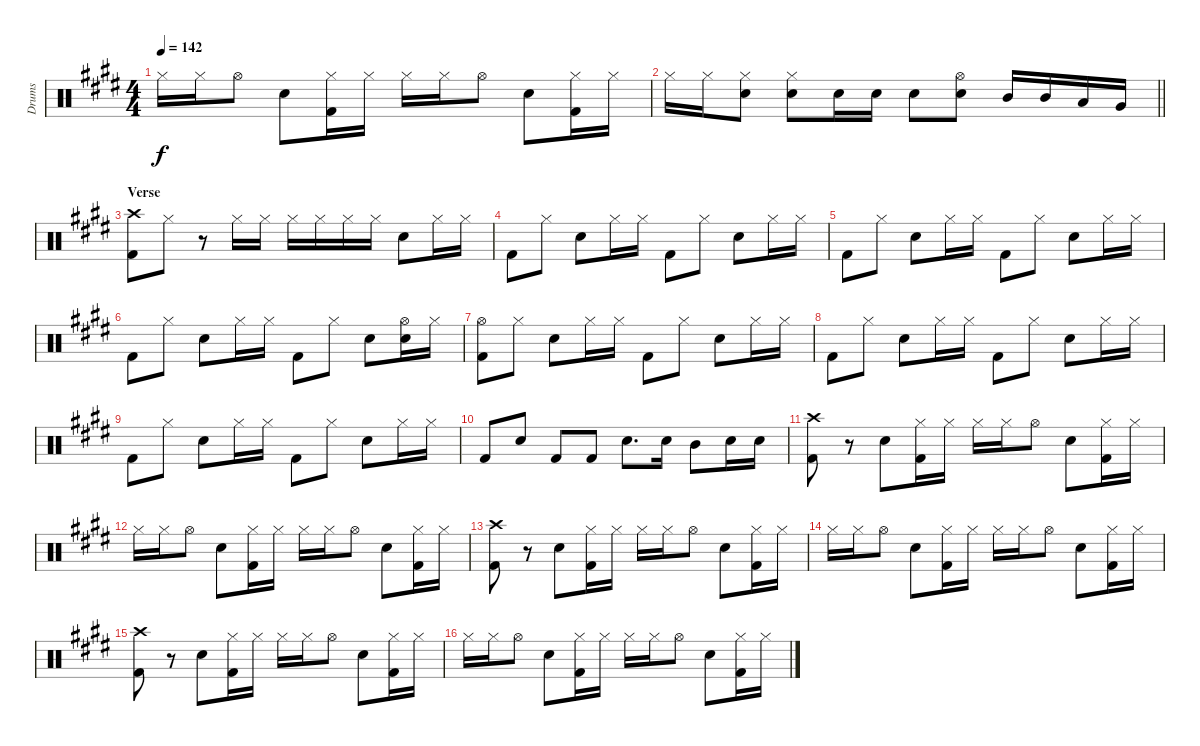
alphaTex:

\track ("Drums" "Drums") {instrument percussion}
\staff {score}
\articulation defaults
\ts (4 4)
\tempo 142
\clef neutral
\ks e "Hi-Hat (closed)".16{dy f} "Hi-Hat (closed)".16 "Hi-Hat (open)".8 "Electric Snare (hit)".8
("Hi-Hat (closed)" "Kick (hit) 2").16 "Hi-Hat (closed)".16 "Hi-Hat (closed)".16 "Hi-Hat (closed)".16 "Hi-Hat (open)".8 "Electric Snare (hit)".8 ("Hi-Hat (closed)" "Kick (hit) 2").16 "Hi-Hat (closed)".16 |
\barLineRight lightlight "Hi-Hat (closed)".16 "Hi-Hat (closed)".16
("Hi-Hat (closed)" "Electric Snare (hit)").8 ("Hi-Hat (closed)" "Electric Snare (hit)").8 "Electric Snare (hit)".16 "Electric Snare (hit)".16 "Electric Snare (hit)".8 ("Hi-Hat (open)" "Electric Snare (hit)").8 "Mid Tom (hit)".16 "Mid Tom (hit)".16 "Low Tom (hit)".16 "Very Low Tom (hit)".16 |
\section ("" "Verse")
("Crash high (hit)" "Kick (hit) 2").8 "Hi-Hat (closed)".8 r.8 "Hi-Hat (closed)".16 "Hi-Hat (closed)".16 "Hi-Hat (closed)".16 "Hi-Hat (closed)".16 "Hi-Hat (closed)".16 "Hi-Hat (closed)".16 "Electric Snare (hit)".8 "Hi-Hat (closed)".16 "Hi-Hat (closed)".16 |
"Kick (hit) 2".8 "Hi-Hat (closed)".8 "Electric Snare (hit)".8 "Hi-Hat (closed)".16 "Hi-Hat (closed)".16 "Kick (hit) 2".8 "Hi-Hat (closed)".8 "Electric Snare (hit)".8 "Hi-Hat (closed)".16 "Hi-Hat (closed)".16 |
"Kick (hit) 2".8 "Hi-Hat (closed)".8 "Electric Snare (hit)".8 "Hi-Hat (closed)".16 "Hi-Hat (closed)".16 "Kick (hit) 2".8 "Hi-Hat (closed)".8 "Electric Snare (hit)".8 "Hi-Hat (closed)".16 "Hi-Hat (closed)".16 |
"Kick (hit) 2".8 "Hi-Hat (closed)".8 "Electric Snare (hit)".8 "Hi-Hat (closed)".16 "Hi-Hat (closed)".16 "Kick (hit) 2".8 "Hi-Hat (closed)".8 "Electric Snare (hit)".8 ("Hi-Hat (open)" "Electric Snare (hit)").16 "Hi-Hat (closed)".16 |
("Hi-Hat (open)" "Kick (hit) 2").8 "Hi-Hat (closed)".8 "Electric Snare (hit)".8 "Hi-Hat (closed)".16 "Hi-Hat (closed)".16 "Kick (hit) 2".8 "Hi-Hat (closed)".8 "Electric Snare (hit)".8 "Hi-Hat (closed)".16 "Hi-Hat (closed)".16 |
"Kick (hit) 2".8 "Hi-Hat (closed)".8 "Electric Snare (hit)".8 "Hi-Hat (closed)".16 "Hi-Hat (closed)".16 "Kick (hit) 2".8 "Hi-Hat (closed)".8 "Electric Snare (hit)".8 "Hi-Hat (closed)".16 "Hi-Hat (closed)".16 |
"Kick (hit) 2".8 "Hi-Hat (closed)".8 "Electric Snare (hit)".8 "Hi-Hat (closed)".16 "Hi-Hat (closed)".16 "Kick (hit) 2".8 "Hi-Hat (closed)".8 "Electric Snare (hit)".8 "Hi-Hat (closed)".16 "Hi-Hat (closed)".16 |
"Kick (hit) 2".8 "Electric Snare (hit)".8 "Kick (hit) 2".8 "Kick (hit) 2".8 "Electric Snare (hit)".8{d} "Electric Snare (hit)".16 "Mid Tom (hit)".8 "Electric Snare (hit)".16 "Electric Snare (hit)".16 |
("Crash high (hit)" "Kick (hit) 2").8 r.8 "Electric Snare (hit)".8 ("Hi-Hat (closed)" "Kick (hit) 2").16 "Hi-Hat (closed)".16 "Hi-Hat (closed)".16 "Hi-Hat (closed)".16 "Hi-Hat (open)".8 "Electric Snare (hit)".8 ("Hi-Hat (closed)" "Kick (hit) 2").16 "Hi-Hat (closed)".16 |
"Hi-Hat (closed)".16 "Hi-Hat (closed)".16 "Hi-Hat (open)".8 "Electric Snare (hit)".8 ("Hi-Hat (closed)" "Kick (hit) 2").16 "Hi-Hat (closed)".16 "Hi-Hat (closed)".16 "Hi-Hat (closed)".16 "Hi-Hat (open)".8 "Electric Snare (hit)".8 ("Hi-Hat (closed)" "Kick (hit) 2").16 "Hi-Hat (closed)".16 |
("Crash high (hit)" "Kick (hit) 2").8 r.8 "Electric Snare (hit)".8 ("Hi-Hat (closed)" "Kick (hit) 2").16 "Hi-Hat (closed)".16 "Hi-Hat (closed)".16 "Hi-Hat (closed)".16 "Hi-Hat (open)".8 "Electric Snare (hit)".8 ("Hi-Hat (closed)" "Kick (hit) 2").16 "Hi-Hat (closed)".16 |
"Hi-Hat (closed)".16 "Hi-Hat (closed)".16 "Hi-Hat (open)".8 "Electric Snare (hit)".8 ("Hi-Hat (closed)" "Kick (hit) 2").16 "Hi-Hat (closed)".16 "Hi-Hat (closed)".16 "Hi-Hat (closed)".16 "Hi-Hat (open)".8 "Electric Snare (hit)".8 ("Hi-Hat (closed)" "Kick (hit) 2").16 "Hi-Hat (closed)".16 |
("Crash high (hit)" "Kick (hit) 2").8 r.8 "Electric Snare (hit)".8 ("Hi-Hat (closed)" "Kick (hit) 2").16 "Hi-Hat (closed)".16 "Hi-Hat (closed)".16 "Hi-Hat (closed)".16 "Hi-Hat (open)".8 "Electric Snare (hit)".8 ("Hi-Hat (closed)" "Kick (hit) 2").16 "Hi-Hat (closed)".16 |
"Hi-Hat (closed)".16 "Hi-Hat (closed)".16 "Hi-Hat (open)".8 "Electric Snare (hit)".8 ("Hi-Hat (closed)" "Kick (hit) 2").16 "Hi-Hat (closed)".16 "Hi-Hat (closed)".16 "Hi-Hat (closed)".16 "Hi-Hat (open)".8 "Electric Snare (hit)".8 ("Hi-Hat (closed)" "Kick (hit) 2").16 "Hi-Hat (closed)".16
